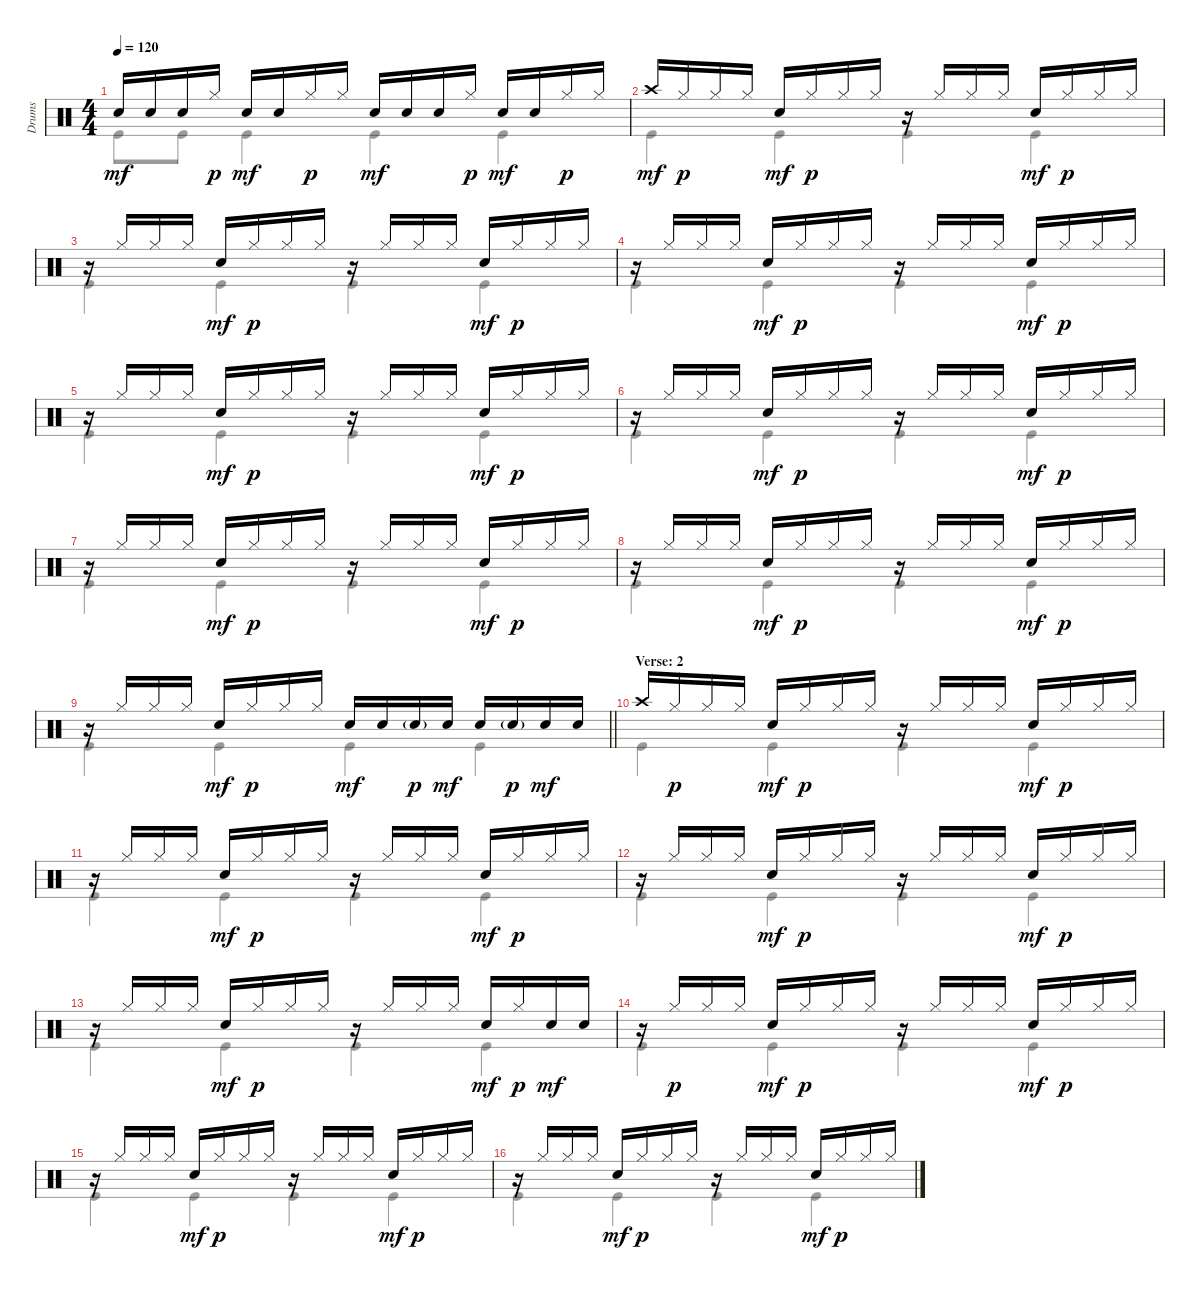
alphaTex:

\track ("Drums" "Drums") {instrument percussion}
\staff {score}
\articulation defaults
\voice
\ts (4 4)
\tempo 120
\clef neutral
\ks c "Snare (hit) 2".16{dy mf} "Snare (hit) 2".16 "Snare (hit) 2".16 "Hi-Hat (closed)".16{dy p} "Snare (hit) 2".16{dy mf} "Snare (hit) 2".16 "Hi-Hat (closed)".16{dy p} "Hi-Hat (closed)".16 "Snare (hit) 2".16{dy mf} "Snare (hit) 2".16 "Snare (hit) 2".16 "Hi-Hat (closed)".16{dy p} "Snare (hit) 2".16{dy mf} "Snare (hit) 2".16 "Hi-Hat (closed)".16{dy p} "Hi-Hat (closed)".16
|
"Crash high (hit)".16{dy mf} "Hi-Hat (closed)".16{dy p} "Hi-Hat (closed)".16 "Hi-Hat (closed)".16 "Snare (hit) 2".16{dy mf} "Hi-Hat (closed)".16{dy p} "Hi-Hat (closed)".16 "Hi-Hat (closed)".16 r.16 "Hi-Hat (closed)".16 "Hi-Hat (closed)".16 "Hi-Hat (closed)".16 "Snare (hit) 2".16{dy mf} "Hi-Hat (closed)".16{dy p} "Hi-Hat (closed)".16 "Hi-Hat (closed)".16 |
r.16 "Hi-Hat (closed)".16 "Hi-Hat (closed)".16 "Hi-Hat (closed)".16 "Snare (hit) 2".16{dy mf} "Hi-Hat (closed)".16{dy p} "Hi-Hat (closed)".16 "Hi-Hat (closed)".16 r.16 "Hi-Hat (closed)".16 "Hi-Hat (closed)".16 "Hi-Hat (closed)".16 "Snare (hit) 2".16{dy mf} "Hi-Hat (closed)".16{dy p} "Hi-Hat (closed)".16 "Hi-Hat (closed)".16 |
r.16 "Hi-Hat (closed)".16 "Hi-Hat (closed)".16 "Hi-Hat (closed)".16 "Snare (hit) 2".16{dy mf} "Hi-Hat (closed)".16{dy p} "Hi-Hat (closed)".16 "Hi-Hat (closed)".16 r.16 "Hi-Hat (closed)".16 "Hi-Hat (closed)".16 "Hi-Hat (closed)".16 "Snare (hit) 2".16{dy mf} "Hi-Hat (closed)".16{dy p} "Hi-Hat (closed)".16 "Hi-Hat (closed)".16 |
r.16 "Hi-Hat (closed)".16 "Hi-Hat (closed)".16 "Hi-Hat (closed)".16 "Snare (hit) 2".16{dy mf} "Hi-Hat (closed)".16{dy p} "Hi-Hat (closed)".16 "Hi-Hat (closed)".16 r.16 "Hi-Hat (closed)".16 "Hi-Hat (closed)".16 "Hi-Hat (closed)".16 "Snare (hit) 2".16{dy mf} "Hi-Hat (closed)".16{dy p} "Hi-Hat (closed)".16 "Hi-Hat (closed)".16 |
r.16 "Hi-Hat (closed)".16 "Hi-Hat (closed)".16 "Hi-Hat (closed)".16 "Snare (hit) 2".16{dy mf} "Hi-Hat (closed)".16{dy p} "Hi-Hat (closed)".16 "Hi-Hat (closed)".16 r.16 "Hi-Hat (closed)".16 "Hi-Hat (closed)".16 "Hi-Hat (closed)".16 "Snare (hit) 2".16{dy mf} "Hi-Hat (closed)".16{dy p} "Hi-Hat (closed)".16 "Hi-Hat (closed)".16 |
r.16 "Hi-Hat (closed)".16 "Hi-Hat (closed)".16 "Hi-Hat (closed)".16 "Snare (hit) 2".16{dy mf} "Hi-Hat (closed)".16{dy p} "Hi-Hat (closed)".16 "Hi-Hat (closed)".16 r.16 "Hi-Hat (closed)".16 "Hi-Hat (closed)".16 "Hi-Hat (closed)".16 "Snare (hit) 2".16{dy mf} "Hi-Hat (closed)".16{dy p} "Hi-Hat (closed)".16 "Hi-Hat (closed)".16 |
r.16 "Hi-Hat (closed)".16 "Hi-Hat (closed)".16 "Hi-Hat (closed)".16 "Snare (hit) 2".16{dy mf} "Hi-Hat (closed)".16{dy p} "Hi-Hat (closed)".16 "Hi-Hat (closed)".16 r.16 "Hi-Hat (closed)".16 "Hi-Hat (closed)".16 "Hi-Hat (closed)".16 "Snare (hit) 2".16{dy mf} "Hi-Hat (closed)".16{dy p} "Hi-Hat (closed)".16 "Hi-Hat (closed)".16 |
\barLineRight lightlight
r.16 "Hi-Hat (closed)".16 "Hi-Hat (closed)".16 "Hi-Hat (closed)".16 "Snare (hit) 2".16{dy mf} "Hi-Hat (closed)".16{dy p} "Hi-Hat (closed)".16 "Hi-Hat (closed)".16 "Snare (hit) 2".16{dy mf} "Snare (hit) 2".16 "Snare (hit) 2"{g}.16{dy p} "Snare (hit) 2".16{dy mf} "Snare (hit) 2".16 "Snare (hit) 2"{g}.16{dy p} "Snare (hit) 2".16{dy mf} "Snare (hit) 2".16 |
\section ("" "Verse: 2")
"Crash high (hit)".16 "Hi-Hat (closed)".16{dy p} "Hi-Hat (closed)".16 "Hi-Hat (closed)".16 "Snare (hit) 2".16{dy mf} "Hi-Hat (closed)".16{dy p} "Hi-Hat (closed)".16 "Hi-Hat (closed)".16 r.16 "Hi-Hat (closed)".16 "Hi-Hat (closed)".16 "Hi-Hat (closed)".16 "Snare (hit) 2".16{dy mf} "Hi-Hat (closed)".16{dy p} "Hi-Hat (closed)".16 "Hi-Hat (closed)".16 |
r.16 "Hi-Hat (closed)".16 "Hi-Hat (closed)".16 "Hi-Hat (closed)".16 "Snare (hit) 2".16{dy mf} "Hi-Hat (closed)".16{dy p} "Hi-Hat (closed)".16 "Hi-Hat (closed)".16 r.16 "Hi-Hat (closed)".16 "Hi-Hat (closed)".16 "Hi-Hat (closed)".16 "Snare (hit) 2".16{dy mf} "Hi-Hat (closed)".16{dy p} "Hi-Hat (closed)".16 "Hi-Hat (closed)".16 |
r.16 "Hi-Hat (closed)".16 "Hi-Hat (closed)".16 "Hi-Hat (closed)".16 "Snare (hit) 2".16{dy mf} "Hi-Hat (closed)".16{dy p} "Hi-Hat (closed)".16 "Hi-Hat (closed)".16 r.16 "Hi-Hat (closed)".16 "Hi-Hat (closed)".16 "Hi-Hat (closed)".16 "Snare (hit) 2".16{dy mf} "Hi-Hat (closed)".16{dy p} "Hi-Hat (closed)".16 "Hi-Hat (closed)".16 |
r.16 "Hi-Hat (closed)".16 "Hi-Hat (closed)".16 "Hi-Hat (closed)".16 "Snare (hit) 2".16{dy mf} "Hi-Hat (closed)".16{dy p} "Hi-Hat (closed)".16 "Hi-Hat (closed)".16 r.16 "Hi-Hat (closed)".16 "Hi-Hat (closed)".16 "Hi-Hat (closed)".16 "Snare (hit) 2".16{dy mf} "Hi-Hat (closed)".16{dy p} "Snare (hit) 2".16{dy mf} "Snare (hit) 2".16 |
r.16 "Hi-Hat (closed)".16{dy p} "Hi-Hat (closed)".16 "Hi-Hat (closed)".16 "Snare (hit) 2".16{dy mf} "Hi-Hat (closed)".16{dy p} "Hi-Hat (closed)".16 "Hi-Hat (closed)".16 r.16 "Hi-Hat (closed)".16 "Hi-Hat (closed)".16 "Hi-Hat (closed)".16 "Snare (hit) 2".16{dy mf} "Hi-Hat (closed)".16{dy p} "Hi-Hat (closed)".16 "Hi-Hat (closed)".16 |
r.16 "Hi-Hat (closed)".16 "Hi-Hat (closed)".16 "Hi-Hat (closed)".16 "Snare (hit) 2".16{dy mf} "Hi-Hat (closed)".16{dy p} "Hi-Hat (closed)".16 "Hi-Hat (closed)".16 r.16 "Hi-Hat (closed)".16 "Hi-Hat (closed)".16 "Hi-Hat (closed)".16 "Snare (hit) 2".16{dy mf} "Hi-Hat (closed)".16{dy p} "Hi-Hat (closed)".16 "Hi-Hat (closed)".16 |
r.16 "Hi-Hat (closed)".16 "Hi-Hat (closed)".16 "Hi-Hat (closed)".16 "Snare (hit) 2".16{dy mf} "Hi-Hat (closed)".16{dy p} "Hi-Hat (closed)".16 "Hi-Hat (closed)".16 r.16 "Hi-Hat (closed)".16 "Hi-Hat (closed)".16 "Hi-Hat (closed)".16 "Snare (hit) 2".16{dy mf} "Hi-Hat (closed)".16{dy p} "Hi-Hat (closed)".16 "Hi-Hat (closed)".16
\voice
\clef neutral
\ottava regular
\simile none
\ks c "Kick (hit)".8{dy mf} "Kick (hit)".8 "Kick (hit)".4 "Kick (hit)".4 "Kick (hit)".4
|
"Kick (hit)".4 "Kick (hit)".4 "Kick (hit)".4 "Kick (hit)".4 |
"Kick (hit)".4 "Kick (hit)".4 "Kick (hit)".4 "Kick (hit)".4 |
"Kick (hit)".4 "Kick (hit)".4 "Kick (hit)".4 "Kick (hit)".4 |
"Kick (hit)".4 "Kick (hit)".4 "Kick (hit)".4 "Kick (hit)".4 |
"Kick (hit)".4 "Kick (hit)".4 "Kick (hit)".4 "Kick (hit)".4 |
"Kick (hit)".4 "Kick (hit)".4 "Kick (hit)".4 "Kick (hit)".4 |
"Kick (hit)".4 "Kick (hit)".4 "Kick (hit)".4 "Kick (hit)".4 |
\barLineRight lightlight "Kick (hit)".4 "Kick (hit)".4 "Kick (hit)".4 "Kick (hit)".4
|
"Kick (hit)".4 "Kick (hit)".4 "Kick (hit)".4 "Kick (hit)".4 |
"Kick (hit)".4 "Kick (hit)".4 "Kick (hit)".4 "Kick (hit)".4 |
"Kick (hit)".4 "Kick (hit)".4 "Kick (hit)".4 "Kick (hit)".4 |
"Kick (hit)".4 "Kick (hit)".4 "Kick (hit)".4 "Kick (hit)".4 |
"Kick (hit)".4 "Kick (hit)".4 "Kick (hit)".4 "Kick (hit)".4 |
"Kick (hit)".4 "Kick (hit)".4 "Kick (hit)".4 "Kick (hit)".4 |
"Kick (hit)".4 "Kick (hit)".4 "Kick (hit)".4 "Kick (hit)".4
